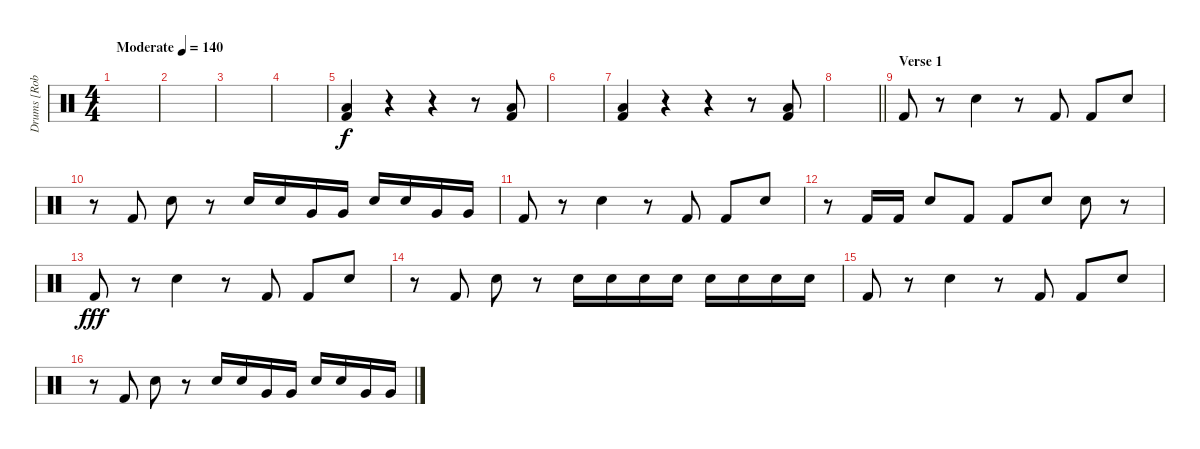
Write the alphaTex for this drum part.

\track ("Drums [Rob Bourdon]" "Drums [Rob") {instrument percussion}
\staff {score}
\articulation defaults
\ts (4 4)
\tempo (140 "Moderate")
\clef neutral
\ks c
|
|
|
|
("Low Floor Tom (hit)" "Kick (hit) 2").4 r.4 r.4 r.8 ("Low Floor Tom (hit)" "Kick (hit) 2").8 |
|
("Low Floor Tom (hit)" "Kick (hit) 2").4 r.4 r.4 r.8 ("Low Floor Tom (hit)" "Kick (hit) 2").8 |
\barLineRight lightlight
|
\section ("" "Verse 1")
"Kick (hit) 2".8 r.8 "Snare (hit) 2".4 r.8 "Kick (hit) 2".8 "Kick (hit) 2".8 "Snare (hit) 2".8 |
r.8 "Kick (hit) 2".8 "Snare (hit) 2".8 r.8 "Snare (hit) 2".16 "Snare (hit) 2".16 "Very Low Tom (hit)".16 "Very Low Tom (hit)".16 "Snare (hit) 2".16 "Snare (hit) 2".16 "Very Low Tom (hit)".16 "Very Low Tom (hit)".16 |
"Kick (hit) 2".8 r.8 "Snare (hit) 2".4 r.8 "Kick (hit) 2".8 "Kick (hit) 2".8 "Snare (hit) 2".8 |
r.8 "Kick (hit) 2".16{dy f} "Kick (hit) 2".16 "Snare (hit) 2".8 "Kick (hit) 2".8 "Kick (hit) 2".8 "Snare (hit) 2".8 "Snare (hit) 2".8 r.8 |
"Kick (hit) 2".8{dy fff} r.8 "Snare (hit) 2".4 r.8 "Kick (hit) 2".8 "Kick (hit) 2".8 "Snare (hit) 2".8 |
r.8 "Kick (hit) 2".8 "Snare (hit) 2".8 r.8 "Snare (hit) 2".16 "Snare (hit) 2".16 "Snare (hit) 2".16 "Snare (hit) 2".16 "Snare (hit) 2".16 "Snare (hit) 2".16 "Snare (hit) 2".16 "Snare (hit) 2".16 |
"Kick (hit) 2".8 r.8 "Snare (hit) 2".4 r.8 "Kick (hit) 2".8 "Kick (hit) 2".8 "Snare (hit) 2".8 |
r.8 "Kick (hit) 2".8 "Snare (hit) 2".8 r.8 "Snare (hit) 2".16 "Snare (hit) 2".16 "Very Low Tom (hit)".16 "Very Low Tom (hit)".16 "Snare (hit) 2".16 "Snare (hit) 2".16 "Very Low Tom (hit)".16 "Very Low Tom (hit)".16
